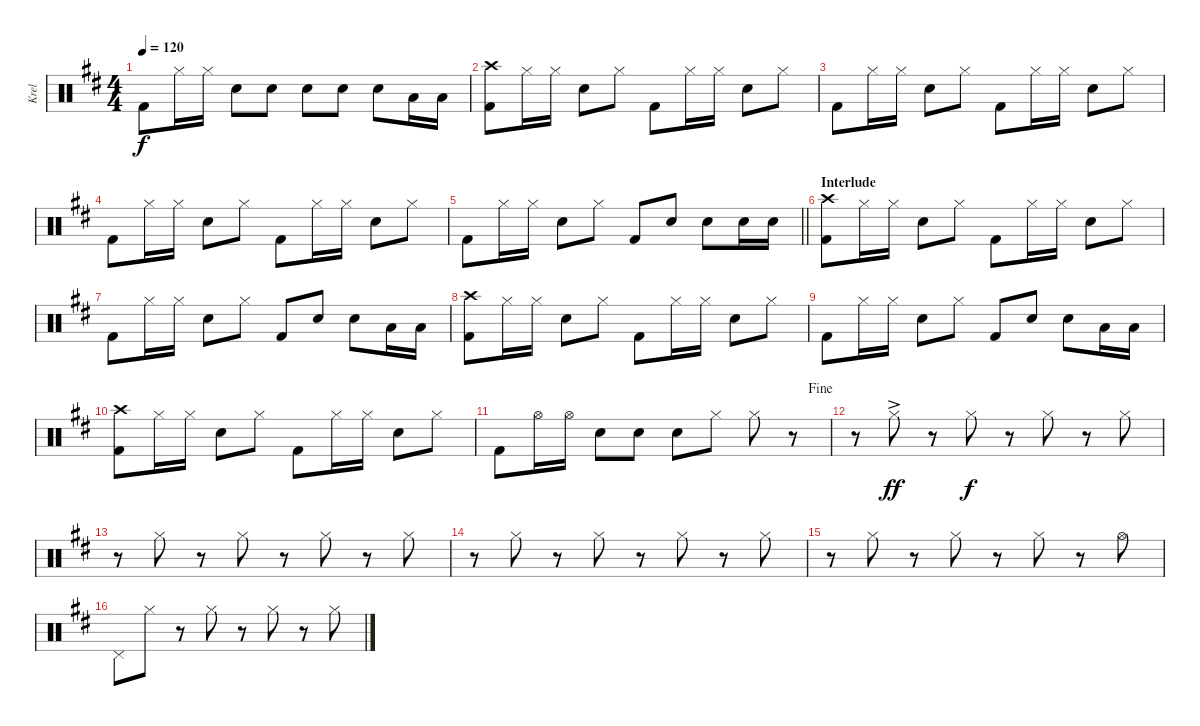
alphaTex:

\track ("Krel" "Krel") {instrument percussion}
\staff {score}
\articulation defaults
\ts (4 4)
\tempo 120
\clef neutral
\ks d "Kick (hit) 2".8{dy f} "Hi-Hat (closed)".16 "Hi-Hat (closed)".16 "Snare (hit) 2".8 "Snare (hit) 2".8 "Snare (hit) 2".8 "Snare (hit) 2".8 "Snare (hit) 2".8 "Low Tom (hit)".16 "Low Tom (hit)".16
|
("Crash high (hit)" "Kick (hit) 2").8 "Hi-Hat (closed)".16 "Hi-Hat (closed)".16 "Snare (hit) 2".8 "Hi-Hat (closed)".8 "Kick (hit) 2".8 "Hi-Hat (closed)".16 "Hi-Hat (closed)".16 "Snare (hit) 2".8 "Hi-Hat (closed)".8 |
"Kick (hit) 2".8 "Hi-Hat (closed)".16 "Hi-Hat (closed)".16 "Snare (hit) 2".8 "Hi-Hat (closed)".8 "Kick (hit) 2".8 "Hi-Hat (closed)".16 "Hi-Hat (closed)".16 "Snare (hit) 2".8 "Hi-Hat (closed)".8 |
"Kick (hit) 2".8 "Hi-Hat (closed)".16 "Hi-Hat (closed)".16 "Snare (hit) 2".8 "Hi-Hat (closed)".8 "Kick (hit) 2".8 "Hi-Hat (closed)".16 "Hi-Hat (closed)".16 "Snare (hit) 2".8 "Hi-Hat (closed)".8 |
\barLineRight lightlight "Kick (hit) 2".8 "Hi-Hat (closed)".16 "Hi-Hat (closed)".16 "Snare (hit) 2".8 "Hi-Hat (closed)".8 "Kick (hit) 2".8 "Snare (hit) 2".8 "Snare (hit) 2".8 "Snare (hit) 2".16 "Snare (hit) 2".16
|
\section ("" "Interlude")
("Crash high (hit)" "Kick (hit) 2").8 "Hi-Hat (closed)".16 "Hi-Hat (closed)".16 "Snare (hit) 2".8 "Hi-Hat (closed)".8 "Kick (hit) 2".8 "Hi-Hat (closed)".16 "Hi-Hat (closed)".16 "Snare (hit) 2".8 "Hi-Hat (closed)".8 |
"Kick (hit) 2".8 "Hi-Hat (closed)".16 "Hi-Hat (closed)".16 "Snare (hit) 2".8 "Hi-Hat (closed)".8 "Kick (hit) 2".8 "Snare (hit) 2".8 "Snare (hit) 2".8 "Low Tom (hit)".16 "Low Tom (hit)".16 |
("Crash high (hit)" "Kick (hit) 2").8 "Hi-Hat (closed)".16 "Hi-Hat (closed)".16 "Snare (hit) 2".8 "Hi-Hat (closed)".8 "Kick (hit) 2".8 "Hi-Hat (closed)".16 "Hi-Hat (closed)".16 "Snare (hit) 2".8 "Hi-Hat (closed)".8 |
"Kick (hit) 2".8 "Hi-Hat (closed)".16 "Hi-Hat (closed)".16 "Snare (hit) 2".8 "Hi-Hat (closed)".8 "Kick (hit) 2".8 "Snare (hit) 2".8 "Snare (hit) 2".8 "Low Tom (hit)".16 "Low Tom (hit)".16 |
("Crash high (hit)" "Kick (hit) 2").8 "Hi-Hat (closed)".16 "Hi-Hat (closed)".16 "Snare (hit) 2".8 "Hi-Hat (closed)".8 "Kick (hit) 2".8 "Hi-Hat (closed)".16 "Hi-Hat (closed)".16 "Snare (hit) 2".8 "Hi-Hat (closed)".8 |
\jump fine "Kick (hit) 2".8 "Hi-Hat (open)".16 "Hi-Hat (open)".16 "Snare (hit) 2".8 "Snare (hit) 2".8 "Snare (hit) 2".8 "Hi-Hat (closed)".8 "Hi-Hat (closed)".8
r.8 |
r.8 "Hi-Hat (closed)"{ac}.8{dy ff} r.8 "Hi-Hat (closed)".8{dy f} r.8 "Hi-Hat (closed)".8 r.8 "Hi-Hat (closed)".8 |
r.8 "Hi-Hat (closed)".8 r.8 "Hi-Hat (closed)".8 r.8 "Hi-Hat (closed)".8 r.8 "Hi-Hat (closed)".8 |
r.8 "Hi-Hat (closed)".8 r.8 "Hi-Hat (closed)".8 r.8 "Hi-Hat (closed)".8 r.8 "Hi-Hat (closed)".8 |
r.8 "Hi-Hat (closed)".8 r.8 "Hi-Hat (closed)".8 r.8 "Hi-Hat (closed)".8 r.8 "Hi-Hat (open)".8 |
"Pedal Hi-Hat (hit)".8 "Hi-Hat (closed)".8 r.8 "Hi-Hat (closed)".8 r.8 "Hi-Hat (closed)".8 r.8 "Hi-Hat (closed)".8
